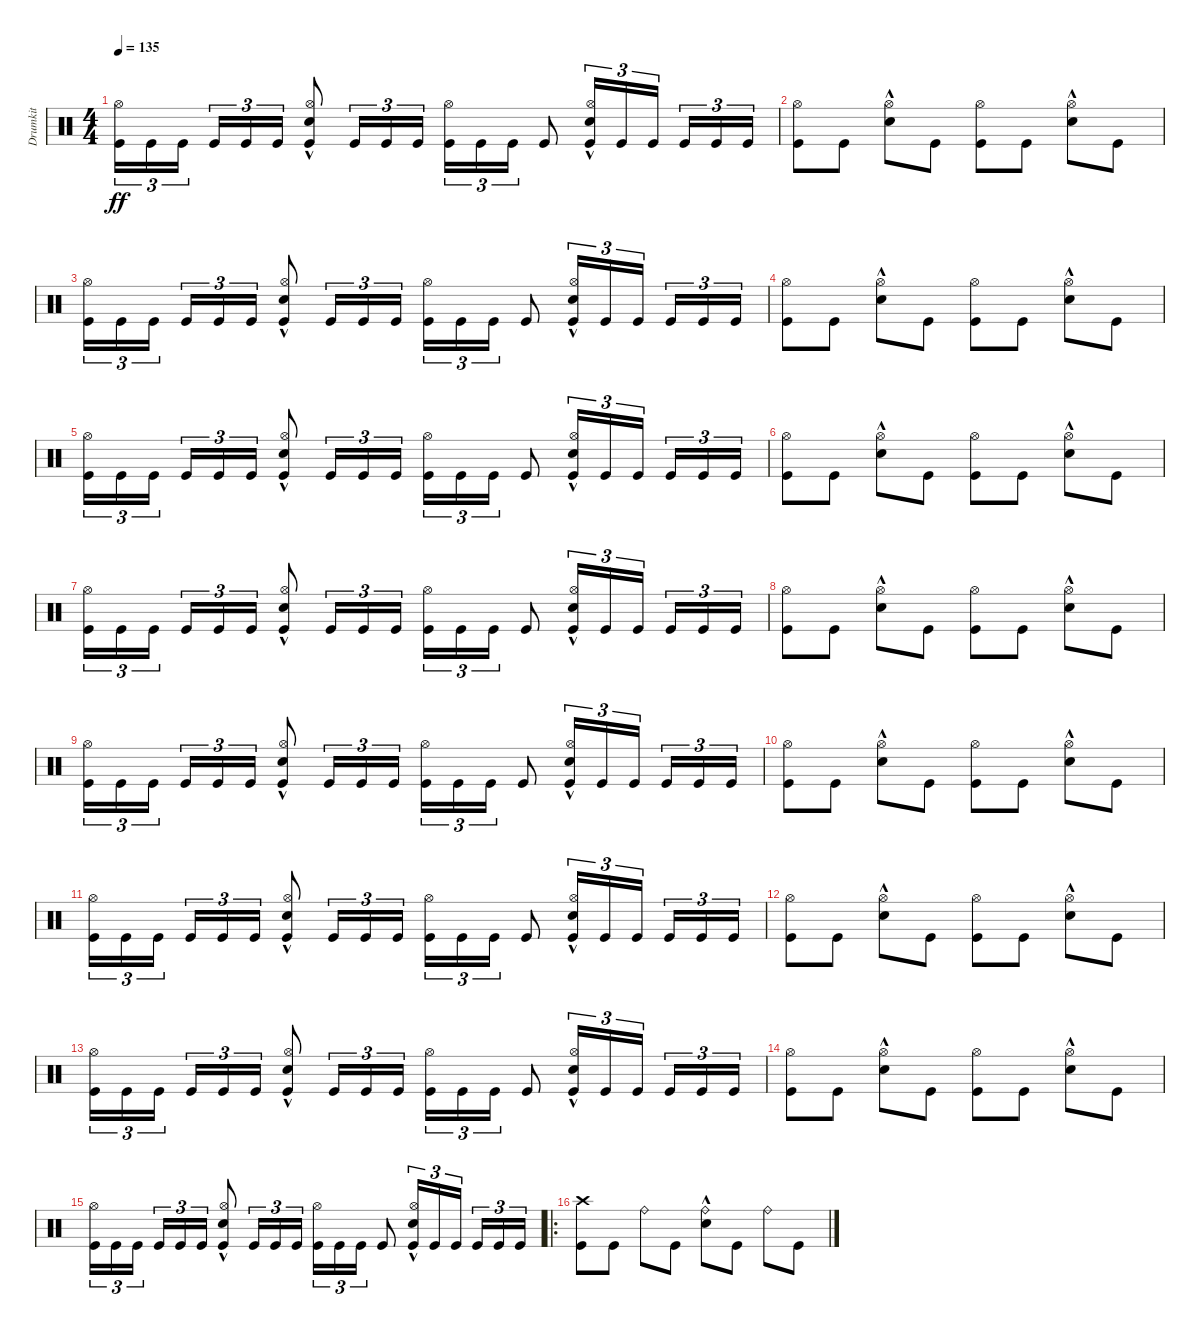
\track ("Drumkit" "Drumkit") {instrument percussion}
\staff {score}
\articulation defaults
\ts (4 4)
\tempo 135
\clef neutral
\ks c
("Kick (hit)" "Hi-Hat (open)").16{tu (3 2) dy ff} "Kick (hit)".16{tu (3 2)} "Kick (hit)".16{tu (3 2) beam splitsecondary} "Kick (hit)".16{tu (3 2)} "Kick (hit)".16{tu (3 2)} "Kick (hit)".16{tu (3 2)} ("Kick (hit)" "Hi-Hat (open)" "Snare (hit) 2"{hac}).8 "Kick (hit)".16{tu (3 2)} "Kick (hit)".16{tu (3 2)} "Kick (hit)".16{tu (3 2)} ("Kick (hit)" "Hi-Hat (open)").16{tu (3 2)} "Kick (hit)".16{tu (3 2)} "Kick (hit)".16{tu (3 2)} "Kick (hit)".8 ("Kick (hit)" "Hi-Hat (open)" "Snare (hit) 2"{hac}).16{tu (3 2)} "Kick (hit)".16{tu (3 2)} "Kick (hit)".16{tu (3 2) beam splitsecondary} "Kick (hit)".16{tu (3 2)} "Kick (hit)".16{tu (3 2)} "Kick (hit)".16{tu (3 2)} |
("Kick (hit)" "Hi-Hat (open)").8 "Kick (hit)".8 ("Snare (hit) 2"{hac} "Hi-Hat (open)").8 "Kick (hit)".8 ("Kick (hit)" "Hi-Hat (open)").8 "Kick (hit)".8 ("Snare (hit) 2"{hac} "Hi-Hat (open)").8 "Kick (hit)".8 |
("Kick (hit)" "Hi-Hat (open)").16{tu (3 2)} "Kick (hit)".16{tu (3 2)} "Kick (hit)".16{tu (3 2) beam splitsecondary} "Kick (hit)".16{tu (3 2)} "Kick (hit)".16{tu (3 2)} "Kick (hit)".16{tu (3 2)} ("Kick (hit)" "Hi-Hat (open)" "Snare (hit) 2"{hac}).8 "Kick (hit)".16{tu (3 2)} "Kick (hit)".16{tu (3 2)} "Kick (hit)".16{tu (3 2)} ("Kick (hit)" "Hi-Hat (open)").16{tu (3 2)} "Kick (hit)".16{tu (3 2)} "Kick (hit)".16{tu (3 2)} "Kick (hit)".8 ("Kick (hit)" "Hi-Hat (open)" "Snare (hit) 2"{hac}).16{tu (3 2)} "Kick (hit)".16{tu (3 2)} "Kick (hit)".16{tu (3 2) beam splitsecondary} "Kick (hit)".16{tu (3 2)} "Kick (hit)".16{tu (3 2)} "Kick (hit)".16{tu (3 2)} |
("Kick (hit)" "Hi-Hat (open)").8 "Kick (hit)".8 ("Snare (hit) 2"{hac} "Hi-Hat (open)").8 "Kick (hit)".8 ("Kick (hit)" "Hi-Hat (open)").8 "Kick (hit)".8 ("Snare (hit) 2"{hac} "Hi-Hat (open)").8 "Kick (hit)".8 |
("Kick (hit)" "Hi-Hat (open)").16{tu (3 2)} "Kick (hit)".16{tu (3 2)} "Kick (hit)".16{tu (3 2) beam splitsecondary} "Kick (hit)".16{tu (3 2)} "Kick (hit)".16{tu (3 2)} "Kick (hit)".16{tu (3 2)} ("Kick (hit)" "Hi-Hat (open)" "Snare (hit) 2"{hac}).8 "Kick (hit)".16{tu (3 2)} "Kick (hit)".16{tu (3 2)} "Kick (hit)".16{tu (3 2)} ("Kick (hit)" "Hi-Hat (open)").16{tu (3 2)} "Kick (hit)".16{tu (3 2)} "Kick (hit)".16{tu (3 2)} "Kick (hit)".8 ("Kick (hit)" "Hi-Hat (open)" "Snare (hit) 2"{hac}).16{tu (3 2)} "Kick (hit)".16{tu (3 2)} "Kick (hit)".16{tu (3 2) beam splitsecondary} "Kick (hit)".16{tu (3 2)} "Kick (hit)".16{tu (3 2)} "Kick (hit)".16{tu (3 2)} |
("Kick (hit)" "Hi-Hat (open)").8 "Kick (hit)".8 ("Snare (hit) 2"{hac} "Hi-Hat (open)").8 "Kick (hit)".8 ("Kick (hit)" "Hi-Hat (open)").8 "Kick (hit)".8 ("Snare (hit) 2"{hac} "Hi-Hat (open)").8 "Kick (hit)".8 |
("Kick (hit)" "Hi-Hat (open)").16{tu (3 2)} "Kick (hit)".16{tu (3 2)} "Kick (hit)".16{tu (3 2) beam splitsecondary} "Kick (hit)".16{tu (3 2)} "Kick (hit)".16{tu (3 2)} "Kick (hit)".16{tu (3 2)} ("Kick (hit)" "Hi-Hat (open)" "Snare (hit) 2"{hac}).8 "Kick (hit)".16{tu (3 2)} "Kick (hit)".16{tu (3 2)} "Kick (hit)".16{tu (3 2)} ("Kick (hit)" "Hi-Hat (open)").16{tu (3 2)} "Kick (hit)".16{tu (3 2)} "Kick (hit)".16{tu (3 2)} "Kick (hit)".8 ("Kick (hit)" "Hi-Hat (open)" "Snare (hit) 2"{hac}).16{tu (3 2)} "Kick (hit)".16{tu (3 2)} "Kick (hit)".16{tu (3 2) beam splitsecondary} "Kick (hit)".16{tu (3 2)} "Kick (hit)".16{tu (3 2)} "Kick (hit)".16{tu (3 2)} |
("Kick (hit)" "Hi-Hat (open)").8 "Kick (hit)".8 ("Snare (hit) 2"{hac} "Hi-Hat (open)").8 "Kick (hit)".8 ("Kick (hit)" "Hi-Hat (open)").8 "Kick (hit)".8 ("Snare (hit) 2"{hac} "Hi-Hat (open)").8 "Kick (hit)".8 |
("Kick (hit)" "Hi-Hat (open)").16{tu (3 2)} "Kick (hit)".16{tu (3 2)} "Kick (hit)".16{tu (3 2) beam splitsecondary} "Kick (hit)".16{tu (3 2)} "Kick (hit)".16{tu (3 2)} "Kick (hit)".16{tu (3 2)} ("Kick (hit)" "Hi-Hat (open)" "Snare (hit) 2"{hac}).8 "Kick (hit)".16{tu (3 2)} "Kick (hit)".16{tu (3 2)} "Kick (hit)".16{tu (3 2)} ("Kick (hit)" "Hi-Hat (open)").16{tu (3 2)} "Kick (hit)".16{tu (3 2)} "Kick (hit)".16{tu (3 2)} "Kick (hit)".8 ("Kick (hit)" "Hi-Hat (open)" "Snare (hit) 2"{hac}).16{tu (3 2)} "Kick (hit)".16{tu (3 2)} "Kick (hit)".16{tu (3 2) beam splitsecondary} "Kick (hit)".16{tu (3 2)} "Kick (hit)".16{tu (3 2)} "Kick (hit)".16{tu (3 2)} |
("Kick (hit)" "Hi-Hat (open)").8 "Kick (hit)".8 ("Snare (hit) 2"{hac} "Hi-Hat (open)").8 "Kick (hit)".8 ("Kick (hit)" "Hi-Hat (open)").8 "Kick (hit)".8 ("Snare (hit) 2"{hac} "Hi-Hat (open)").8 "Kick (hit)".8 |
("Kick (hit)" "Hi-Hat (open)").16{tu (3 2)} "Kick (hit)".16{tu (3 2)} "Kick (hit)".16{tu (3 2) beam splitsecondary} "Kick (hit)".16{tu (3 2)} "Kick (hit)".16{tu (3 2)} "Kick (hit)".16{tu (3 2)} ("Kick (hit)" "Hi-Hat (open)" "Snare (hit) 2"{hac}).8 "Kick (hit)".16{tu (3 2)} "Kick (hit)".16{tu (3 2)} "Kick (hit)".16{tu (3 2)} ("Kick (hit)" "Hi-Hat (open)").16{tu (3 2)} "Kick (hit)".16{tu (3 2)} "Kick (hit)".16{tu (3 2)} "Kick (hit)".8 ("Kick (hit)" "Hi-Hat (open)" "Snare (hit) 2"{hac}).16{tu (3 2)} "Kick (hit)".16{tu (3 2)} "Kick (hit)".16{tu (3 2) beam splitsecondary} "Kick (hit)".16{tu (3 2)} "Kick (hit)".16{tu (3 2)} "Kick (hit)".16{tu (3 2)} |
("Kick (hit)" "Hi-Hat (open)").8 "Kick (hit)".8 ("Snare (hit) 2"{hac} "Hi-Hat (open)").8 "Kick (hit)".8 ("Kick (hit)" "Hi-Hat (open)").8 "Kick (hit)".8 ("Snare (hit) 2"{hac} "Hi-Hat (open)").8 "Kick (hit)".8 |
("Kick (hit)" "Hi-Hat (open)").16{tu (3 2)} "Kick (hit)".16{tu (3 2)} "Kick (hit)".16{tu (3 2) beam splitsecondary} "Kick (hit)".16{tu (3 2)} "Kick (hit)".16{tu (3 2)} "Kick (hit)".16{tu (3 2)} ("Kick (hit)" "Hi-Hat (open)" "Snare (hit) 2"{hac}).8 "Kick (hit)".16{tu (3 2)} "Kick (hit)".16{tu (3 2)} "Kick (hit)".16{tu (3 2)} ("Kick (hit)" "Hi-Hat (open)").16{tu (3 2)} "Kick (hit)".16{tu (3 2)} "Kick (hit)".16{tu (3 2)} "Kick (hit)".8 ("Kick (hit)" "Hi-Hat (open)" "Snare (hit) 2"{hac}).16{tu (3 2)} "Kick (hit)".16{tu (3 2)} "Kick (hit)".16{tu (3 2) beam splitsecondary} "Kick (hit)".16{tu (3 2)} "Kick (hit)".16{tu (3 2)} "Kick (hit)".16{tu (3 2)} |
("Kick (hit)" "Hi-Hat (open)").8 "Kick (hit)".8 ("Snare (hit) 2"{hac} "Hi-Hat (open)").8 "Kick (hit)".8 ("Kick (hit)" "Hi-Hat (open)").8 "Kick (hit)".8 ("Snare (hit) 2"{hac} "Hi-Hat (open)").8 "Kick (hit)".8 |
("Kick (hit)" "Hi-Hat (open)").16{tu (3 2)} "Kick (hit)".16{tu (3 2)} "Kick (hit)".16{tu (3 2) beam splitsecondary} "Kick (hit)".16{tu (3 2)} "Kick (hit)".16{tu (3 2)} "Kick (hit)".16{tu (3 2)} ("Kick (hit)" "Hi-Hat (open)" "Snare (hit) 2"{hac}).8 "Kick (hit)".16{tu (3 2)} "Kick (hit)".16{tu (3 2)} "Kick (hit)".16{tu (3 2)} ("Kick (hit)" "Hi-Hat (open)").16{tu (3 2)} "Kick (hit)".16{tu (3 2)} "Kick (hit)".16{tu (3 2)} "Kick (hit)".8 ("Kick (hit)" "Hi-Hat (open)" "Snare (hit) 2"{hac}).16{tu (3 2)} "Kick (hit)".16{tu (3 2)} "Kick (hit)".16{tu (3 2) beam splitsecondary} "Kick (hit)".16{tu (3 2)} "Kick (hit)".16{tu (3 2)} "Kick (hit)".16{tu (3 2)} |
\ro
("Kick (hit)" "Crash high (hit)").8 "Kick (hit)".8 "Ride (bell)".8 "Kick (hit)".8 ("Ride (bell)" "Snare (hit) 2"{hac}).8 "Kick (hit)".8 "Ride (bell)".8 "Kick (hit)".8
